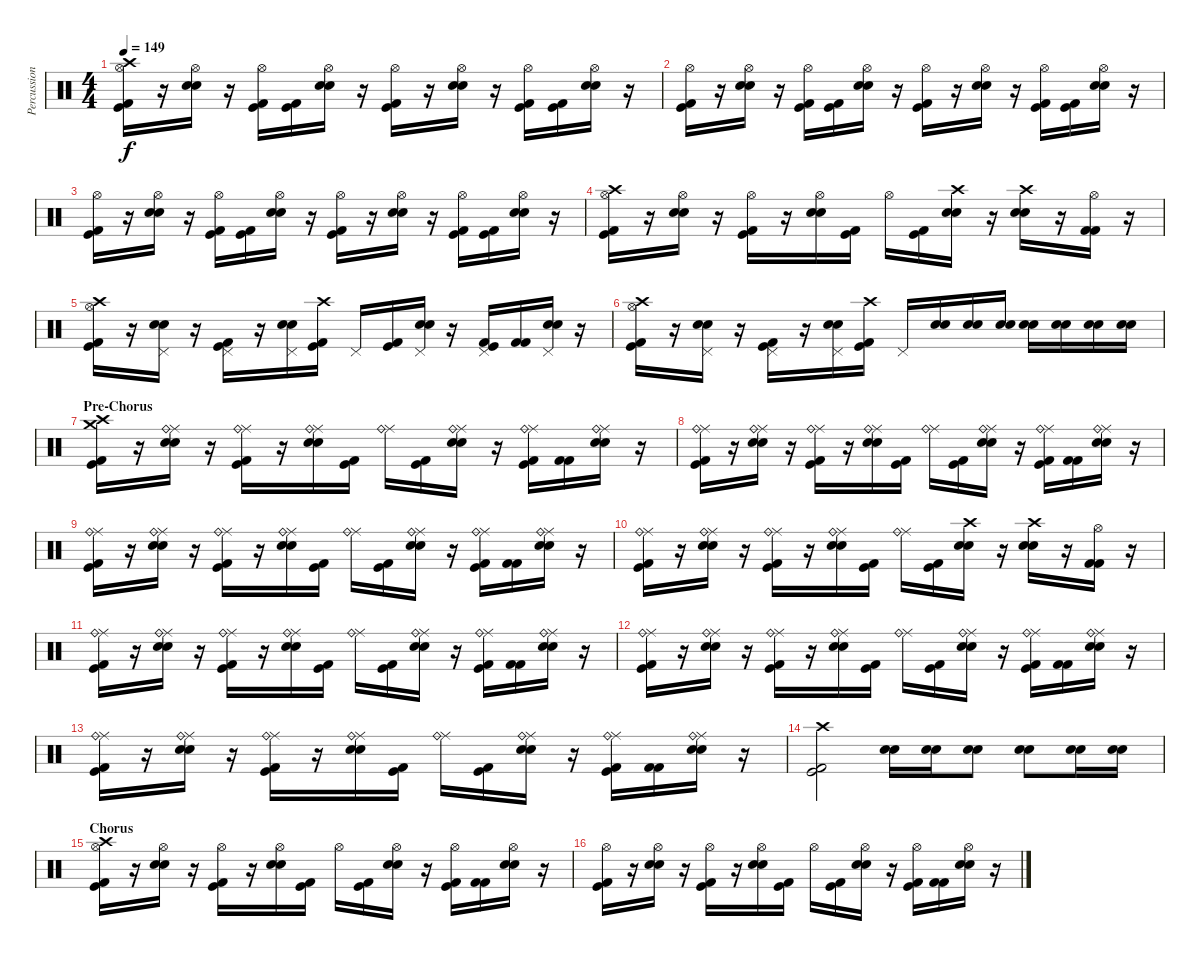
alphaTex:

\track ("Percussioni" "Percussion") {instrument percussion}
\staff {score}
\articulation defaults
\ts (4 4)
\tempo 149
\clef neutral
\ks c
("Kick (hit) 2" "Kick (hit)" "Hi-Hat (open)" "Crash high (hit)").16{dy f} r.16 ("Snare (hit) 2" "Snare (hit) 2" "Hi-Hat (open)").16 r.16 ("Kick (hit) 2" "Kick (hit)" "Hi-Hat (open)").16 ("Kick (hit) 2" "Kick (hit)").16 ("Snare (hit) 2" "Snare (hit) 2" "Hi-Hat (open)").16 r.16 ("Kick (hit) 2" "Kick (hit)" "Hi-Hat (open)").16 r.16 ("Snare (hit) 2" "Snare (hit) 2" "Hi-Hat (open)").16 r.16 ("Kick (hit) 2" "Kick (hit)" "Hi-Hat (open)").16 ("Kick (hit) 2" "Kick (hit)").16 ("Snare (hit) 2" "Snare (hit) 2" "Hi-Hat (open)").16 r.16 |
("Kick (hit) 2" "Kick (hit)" "Hi-Hat (open)").16 r.16 ("Snare (hit) 2" "Snare (hit) 2" "Hi-Hat (open)").16 r.16 ("Kick (hit) 2" "Kick (hit)" "Hi-Hat (open)").16 ("Kick (hit) 2" "Kick (hit)").16 ("Snare (hit) 2" "Snare (hit) 2" "Hi-Hat (open)").16 r.16 ("Kick (hit) 2" "Kick (hit)" "Hi-Hat (open)").16 r.16 ("Snare (hit) 2" "Snare (hit) 2" "Hi-Hat (open)").16 r.16 ("Kick (hit) 2" "Kick (hit)" "Hi-Hat (open)").16 ("Kick (hit) 2" "Kick (hit)").16 ("Snare (hit) 2" "Snare (hit) 2" "Hi-Hat (open)").16 r.16 |
("Kick (hit) 2" "Kick (hit)" "Hi-Hat (open)").16 r.16 ("Snare (hit) 2" "Snare (hit) 2" "Hi-Hat (open)").16 r.16 ("Kick (hit) 2" "Kick (hit)" "Hi-Hat (open)").16 ("Kick (hit) 2" "Kick (hit)").16 ("Snare (hit) 2" "Snare (hit) 2" "Hi-Hat (open)").16 r.16 ("Kick (hit) 2" "Kick (hit)" "Hi-Hat (open)").16 r.16 ("Snare (hit) 2" "Snare (hit) 2" "Hi-Hat (open)").16 r.16 ("Kick (hit) 2" "Kick (hit)" "Hi-Hat (open)").16 ("Kick (hit) 2" "Kick (hit)").16 ("Snare (hit) 2" "Snare (hit) 2" "Hi-Hat (open)").16 r.16 |
("Hi-Hat (open)" "Crash high (hit)" "Kick (hit) 2" "Kick (hit)").16 r.16 ("Hi-Hat (open)" "Snare (hit) 2" "Snare (hit) 2").16 r.16 ("Hi-Hat (open)" "Kick (hit)" "Kick (hit) 2").16 r.16 ("Hi-Hat (open)" "Snare (hit) 2" "Snare (hit) 2").16 ("Kick (hit)" "Kick (hit) 2").16 "Hi-Hat (open)".16 ("Kick (hit) 2" "Kick (hit)").16 ("Crash high (hit)" "Snare (hit) 2" "Snare (hit) 2").16 r.16 ("Crash high (hit)" "Snare (hit) 2" "Snare (hit) 2").16 r.16 ("Hi-Hat (open)" "Kick (hit) 2" "Kick (hit) 2").16 r.16 |
("Hi-Hat (open)" "Crash high (hit)" "Kick (hit) 2" "Kick (hit)").16 r.16 ("Pedal Hi-Hat (hit)" "Snare (hit) 2" "Snare (hit) 2").16 r.16 ("Pedal Hi-Hat (hit)" "Kick (hit)" "Kick (hit) 2").16 r.16 ("Pedal Hi-Hat (hit)" "Snare (hit) 2" "Snare (hit) 2").16 ("Crash high (hit)" "Kick (hit)" "Kick (hit) 2").16 "Pedal Hi-Hat (hit)".16 ("Kick (hit) 2" "Kick (hit)").16 ("Pedal Hi-Hat (hit)" "Snare (hit) 2" "Snare (hit) 2").16 r.16 ("Pedal Hi-Hat (hit)" "Kick (hit)" "Kick (hit) 2").16 ("Kick (hit) 2" "Kick (hit) 2").16 ("Pedal Hi-Hat (hit)" "Snare (hit) 2" "Snare (hit) 2").16 r.16 |
("Hi-Hat (open)" "Crash high (hit)" "Kick (hit) 2" "Kick (hit)").16 r.16 ("Pedal Hi-Hat (hit)" "Snare (hit) 2" "Snare (hit) 2").16 r.16 ("Pedal Hi-Hat (hit)" "Kick (hit)" "Kick (hit) 2").16 r.16 ("Pedal Hi-Hat (hit)" "Snare (hit) 2" "Snare (hit) 2").16 ("Crash high (hit)" "Kick (hit)" "Kick (hit) 2").16 "Pedal Hi-Hat (hit)".16 ("Snare (hit) 2" "Snare (hit) 2").16 ("Snare (hit) 2" "Snare (hit) 2").16 ("Snare (hit) 2" "Snare (hit) 2").16 ("Snare (hit) 2" "Snare (hit) 2").16 ("Snare (hit) 2" "Snare (hit) 2").16 ("Snare (hit) 2" "Snare (hit) 2").16 ("Snare (hit) 2" "Snare (hit) 2").16 |
\section ("" "Pre-Chorus")
("Crash high (hit)" "Crash medium (hit)" "Kick (hit) 2" "Kick (hit)").16 r.16 ("Ride (middle)" "Ride (bell)" "Snare (hit) 2" "Snare (hit) 2").16 r.16 ("Ride (middle)" "Ride (bell)" "Kick (hit)" "Kick (hit) 2").16 r.16 ("Ride (middle)" "Ride (bell)" "Snare (hit) 2" "Snare (hit) 2").16 ("Kick (hit)" "Kick (hit) 2").16 ("Ride (middle)" "Ride (bell)").16 ("Kick (hit) 2" "Kick (hit)").16 ("Ride (middle)" "Ride (bell)" "Snare (hit) 2" "Snare (hit) 2").16 r.16 ("Ride (middle)" "Ride (bell)" "Kick (hit)" "Kick (hit) 2").16 ("Kick (hit) 2" "Kick (hit) 2").16 ("Ride (middle)" "Ride (bell)" "Snare (hit) 2" "Snare (hit) 2").16 r.16 |
("Ride (middle)" "Ride (bell)" "Kick (hit) 2" "Kick (hit)").16 r.16 ("Ride (middle)" "Ride (bell)" "Snare (hit) 2" "Snare (hit) 2").16 r.16 ("Ride (middle)" "Ride (bell)" "Kick (hit)" "Kick (hit) 2").16 r.16 ("Ride (middle)" "Ride (bell)" "Snare (hit) 2" "Snare (hit) 2").16 ("Kick (hit)" "Kick (hit) 2").16 ("Ride (middle)" "Ride (bell)").16 ("Kick (hit) 2" "Kick (hit)").16 ("Ride (middle)" "Ride (bell)" "Snare (hit) 2" "Snare (hit) 2").16 r.16 ("Ride (middle)" "Ride (bell)" "Kick (hit)" "Kick (hit) 2").16 ("Kick (hit) 2" "Kick (hit) 2").16 ("Ride (middle)" "Ride (bell)" "Snare (hit) 2" "Snare (hit) 2").16 r.16 |
("Ride (middle)" "Ride (bell)" "Kick (hit) 2" "Kick (hit)").16 r.16 ("Ride (middle)" "Ride (bell)" "Snare (hit) 2" "Snare (hit) 2").16 r.16 ("Ride (middle)" "Ride (bell)" "Kick (hit)" "Kick (hit) 2").16 r.16 ("Ride (middle)" "Ride (bell)" "Snare (hit) 2" "Snare (hit) 2").16 ("Kick (hit)" "Kick (hit) 2").16 ("Ride (middle)" "Ride (bell)").16 ("Kick (hit) 2" "Kick (hit)").16 ("Ride (middle)" "Ride (bell)" "Snare (hit) 2" "Snare (hit) 2").16 r.16 ("Ride (middle)" "Ride (bell)" "Kick (hit)" "Kick (hit) 2").16 ("Kick (hit) 2" "Kick (hit) 2").16 ("Ride (middle)" "Ride (bell)" "Snare (hit) 2" "Snare (hit) 2").16 r.16 |
("Ride (middle)" "Ride (bell)" "Kick (hit) 2" "Kick (hit)").16 r.16 ("Ride (middle)" "Ride (bell)" "Snare (hit) 2" "Snare (hit) 2").16 r.16 ("Ride (middle)" "Ride (bell)" "Kick (hit)" "Kick (hit) 2").16 r.16 ("Ride (middle)" "Ride (bell)" "Snare (hit) 2" "Snare (hit) 2").16 ("Kick (hit)" "Kick (hit) 2").16 ("Ride (middle)" "Ride (bell)").16 ("Kick (hit) 2" "Kick (hit)").16 ("Crash high (hit)" "Snare (hit) 2" "Snare (hit) 2").16 r.16 ("Crash high (hit)" "Snare (hit) 2" "Snare (hit) 2").16 r.16 ("Hi-Hat (open)" "Kick (hit) 2" "Kick (hit) 2").16 r.16 |
("Ride (middle)" "Ride (bell)" "Kick (hit) 2" "Kick (hit)").16 r.16 ("Ride (middle)" "Ride (bell)" "Snare (hit) 2" "Snare (hit) 2").16 r.16 ("Ride (middle)" "Ride (bell)" "Kick (hit)" "Kick (hit) 2").16 r.16 ("Ride (middle)" "Ride (bell)" "Snare (hit) 2" "Snare (hit) 2").16 ("Kick (hit)" "Kick (hit) 2").16 ("Ride (middle)" "Ride (bell)").16 ("Kick (hit) 2" "Kick (hit)").16 ("Ride (middle)" "Ride (bell)" "Snare (hit) 2" "Snare (hit) 2").16 r.16 ("Ride (middle)" "Ride (bell)" "Kick (hit)" "Kick (hit) 2").16 ("Kick (hit) 2" "Kick (hit) 2").16 ("Ride (middle)" "Ride (bell)" "Snare (hit) 2" "Snare (hit) 2").16 r.16 |
("Ride (middle)" "Ride (bell)" "Kick (hit) 2" "Kick (hit)").16 r.16 ("Ride (middle)" "Ride (bell)" "Snare (hit) 2" "Snare (hit) 2").16 r.16 ("Ride (middle)" "Ride (bell)" "Kick (hit)" "Kick (hit) 2").16 r.16 ("Ride (middle)" "Ride (bell)" "Snare (hit) 2" "Snare (hit) 2").16 ("Kick (hit)" "Kick (hit) 2").16 ("Ride (middle)" "Ride (bell)").16 ("Kick (hit) 2" "Kick (hit)").16 ("Ride (middle)" "Ride (bell)" "Snare (hit) 2" "Snare (hit) 2").16 r.16 ("Ride (middle)" "Ride (bell)" "Kick (hit)" "Kick (hit) 2").16 ("Kick (hit) 2" "Kick (hit) 2").16 ("Ride (middle)" "Ride (bell)" "Snare (hit) 2" "Snare (hit) 2").16 r.16 |
("Ride (middle)" "Ride (bell)" "Kick (hit) 2" "Kick (hit)").16 r.16 ("Ride (middle)" "Ride (bell)" "Snare (hit) 2" "Snare (hit) 2").16 r.16 ("Ride (middle)" "Ride (bell)" "Kick (hit)" "Kick (hit) 2").16 r.16 ("Ride (middle)" "Ride (bell)" "Snare (hit) 2" "Snare (hit) 2").16 ("Kick (hit)" "Kick (hit) 2").16 ("Ride (middle)" "Ride (bell)").16 ("Kick (hit) 2" "Kick (hit)").16 ("Ride (middle)" "Ride (bell)" "Snare (hit) 2" "Snare (hit) 2").16 r.16 ("Ride (middle)" "Ride (bell)" "Kick (hit)" "Kick (hit) 2").16 ("Kick (hit) 2" "Kick (hit) 2").16 ("Ride (middle)" "Ride (bell)" "Snare (hit) 2" "Snare (hit) 2").16 r.16 |
("Crash high (hit)" "Kick (hit) 2" "Kick (hit)").2 ("Snare (hit) 2" "Snare (hit) 2").16 ("Snare (hit) 2" "Snare (hit) 2").16 ("Snare (hit) 2" "Snare (hit) 2").8 ("Snare (hit) 2" "Snare (hit) 2").8 ("Snare (hit) 2" "Snare (hit) 2").16 ("Snare (hit) 2" "Snare (hit) 2").16 |
\section ("" "Chorus")
("Hi-Hat (open)" "Crash high (hit)" "Kick (hit) 2" "Kick (hit)").16 r.16 ("Hi-Hat (open)" "Snare (hit) 2" "Snare (hit) 2").16 r.16 ("Hi-Hat (open)" "Kick (hit)" "Kick (hit) 2").16 r.16 ("Hi-Hat (open)" "Snare (hit) 2" "Snare (hit) 2").16 ("Kick (hit)" "Kick (hit) 2").16 "Hi-Hat (open)".16 ("Kick (hit) 2" "Kick (hit)").16 ("Hi-Hat (open)" "Snare (hit) 2" "Snare (hit) 2").16 r.16 ("Hi-Hat (open)" "Kick (hit)" "Kick (hit) 2").16 ("Kick (hit) 2" "Kick (hit) 2").16 ("Hi-Hat (open)" "Snare (hit) 2" "Snare (hit) 2").16 r.16 |
("Hi-Hat (open)" "Kick (hit) 2" "Kick (hit)").16 r.16 ("Hi-Hat (open)" "Snare (hit) 2" "Snare (hit) 2").16 r.16 ("Hi-Hat (open)" "Kick (hit)" "Kick (hit) 2").16 r.16 ("Hi-Hat (open)" "Snare (hit) 2" "Snare (hit) 2").16 ("Kick (hit)" "Kick (hit) 2").16 "Hi-Hat (open)".16 ("Kick (hit) 2" "Kick (hit)").16 ("Hi-Hat (open)" "Snare (hit) 2" "Snare (hit) 2").16 r.16 ("Hi-Hat (open)" "Kick (hit)" "Kick (hit) 2").16 ("Kick (hit) 2" "Kick (hit) 2").16 ("Hi-Hat (open)" "Snare (hit) 2" "Snare (hit) 2").16 r.16
